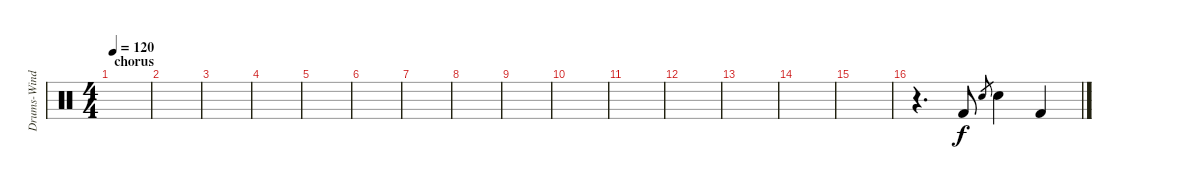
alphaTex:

\track ("Drums-Wind (Bengerg)" "Drums-Wind") {instrument percussion}
\staff {score}
\articulation defaults
\ts (4 4)
\section ("" "chorus")
\tempo 120
\clef neutral
\ks c
|
|
|
|
|
|
|
|
|
|
|
|
|
|
|
r.4{d} "Kick (hit) 2".8 "Electric Snare (hit)".8{gr} "Electric Snare (hit)".4 "Kick (hit) 2".4
